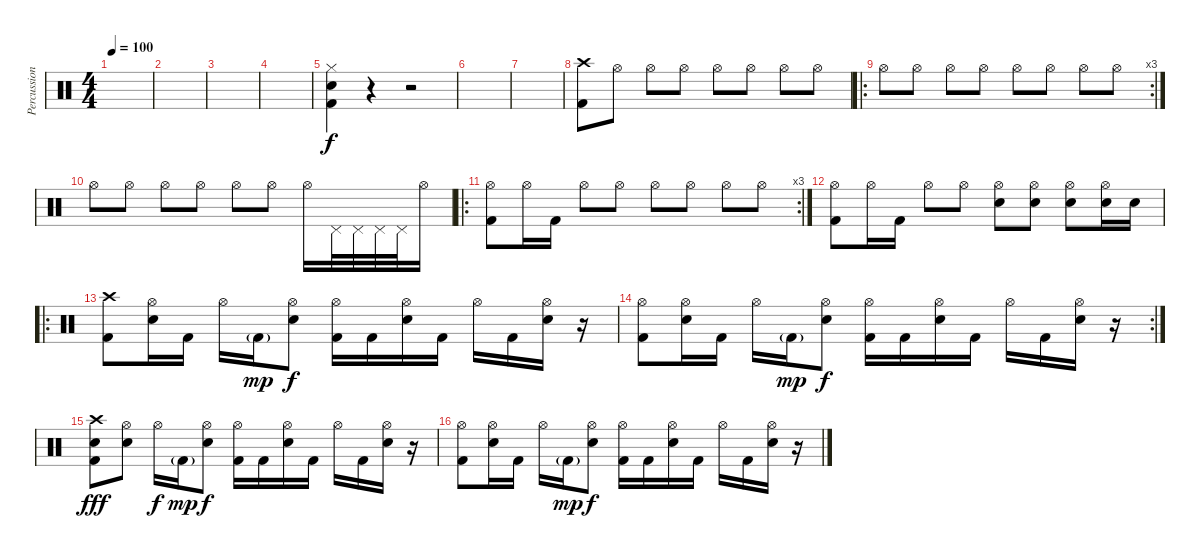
\track ("Percussions" "Percussion") {instrument percussion}
\staff {score}
\articulation defaults
\ts (4 4)
\tempo 100
\clef neutral
\ks c
|
|
|
|
("Hi-Hat (closed)" "Snare (hit) 2" "Kick (hit) 2").4 r.4 r.2 |
|
|
("Crash high (hit)" "Kick (hit) 2").8{volume 12} "Hi-Hat (open)".8 "Hi-Hat (open)".8 "Hi-Hat (open)".8 "Hi-Hat (open)".8 "Hi-Hat (open)".8 "Hi-Hat (open)".8 "Hi-Hat (open)".8 |
\ro
\rc 3 "Hi-Hat (open)".8 "Hi-Hat (open)".8 "Hi-Hat (open)".8 "Hi-Hat (open)".8 "Hi-Hat (open)".8 "Hi-Hat (open)".8 "Hi-Hat (open)".8 "Hi-Hat (open)".8
|
"Hi-Hat (open)".8 "Hi-Hat (open)".8 "Hi-Hat (open)".8 "Hi-Hat (open)".8 "Hi-Hat (open)".8 "Hi-Hat (open)".8 "Hi-Hat (open)".16 "Pedal Hi-Hat (hit)".32 "Pedal Hi-Hat (hit)".32 "Pedal Hi-Hat (hit)".32 "Pedal Hi-Hat (hit)".32 "Hi-Hat (open)".16 |
\ro
\rc 3
("Hi-Hat (open)" "Kick (hit) 2").8 "Hi-Hat (open)".16 "Kick (hit) 2".16 "Hi-Hat (open)".8 "Hi-Hat (open)".8 "Hi-Hat (open)".8 "Hi-Hat (open)".8 "Hi-Hat (open)".8 "Hi-Hat (open)".8 |
("Hi-Hat (open)" "Kick (hit) 2").8 "Hi-Hat (open)".16 "Kick (hit) 2".16 "Hi-Hat (open)".8 "Hi-Hat (open)".8 ("Hi-Hat (open)" "Electric Snare (hit)").8 ("Hi-Hat (open)" "Electric Snare (hit)").8 ("Hi-Hat (open)" "Electric Snare (hit)").8 ("Hi-Hat (open)" "Electric Snare (hit)").16 "Electric Snare (hit)".16 |
\ro
("Crash high (hit)" "Kick (hit) 2").8{volume 16} ("Hi-Hat (open)" "Electric Snare (hit)").16 "Kick (hit) 2".16 "Hi-Hat (open)".16 "Kick (hit) 2"{g}.16{dy mp} ("Hi-Hat (open)" "Electric Snare (hit)").8{dy f} ("Hi-Hat (open)" "Kick (hit) 2").16 "Kick (hit) 2".16 ("Hi-Hat (open)" "Electric Snare (hit)").16 "Kick (hit) 2".16 "Hi-Hat (open)".16 "Kick (hit) 2".16 ("Hi-Hat (open)" "Electric Snare (hit)").16 r.16 |
\rc 2
("Hi-Hat (open)" "Kick (hit) 2").8 ("Hi-Hat (open)" "Electric Snare (hit)").16 "Kick (hit) 2".16 "Hi-Hat (open)".16 "Kick (hit) 2"{g}.16{dy mp} ("Hi-Hat (open)" "Electric Snare (hit)").8{dy f} ("Hi-Hat (open)" "Kick (hit) 2").16 "Kick (hit) 2".16 ("Hi-Hat (open)" "Electric Snare (hit)").16 "Kick (hit) 2".16 "Hi-Hat (open)".16 "Kick (hit) 2".16 ("Hi-Hat (open)" "Electric Snare (hit)").16 r.16 |
("Crash high (hit)" "Electric Snare (hit)" "Kick (hit) 2").8{dy fff} ("Hi-Hat (open)" "Electric Snare (hit)").8 "Hi-Hat (open)".16{dy f} "Kick (hit) 2"{g}.16{dy mp} ("Hi-Hat (open)" "Electric Snare (hit)").8{dy f} ("Hi-Hat (open)" "Kick (hit) 2").16 "Kick (hit) 2".16 ("Hi-Hat (open)" "Electric Snare (hit)").16 "Kick (hit) 2".16 "Hi-Hat (open)".16 "Kick (hit) 2".16 ("Hi-Hat (open)" "Electric Snare (hit)").16 r.16 |
("Hi-Hat (open)" "Kick (hit) 2").8 ("Hi-Hat (open)" "Electric Snare (hit)").16 "Kick (hit) 2".16 "Hi-Hat (open)".16 "Kick (hit) 2"{g}.16{dy mp} ("Hi-Hat (open)" "Electric Snare (hit)").8{dy f} ("Hi-Hat (open)" "Kick (hit) 2").16 "Kick (hit) 2".16 ("Hi-Hat (open)" "Electric Snare (hit)").16 "Kick (hit) 2".16 "Hi-Hat (open)".16 "Kick (hit) 2".16 ("Hi-Hat (open)" "Electric Snare (hit)").16 r.16
